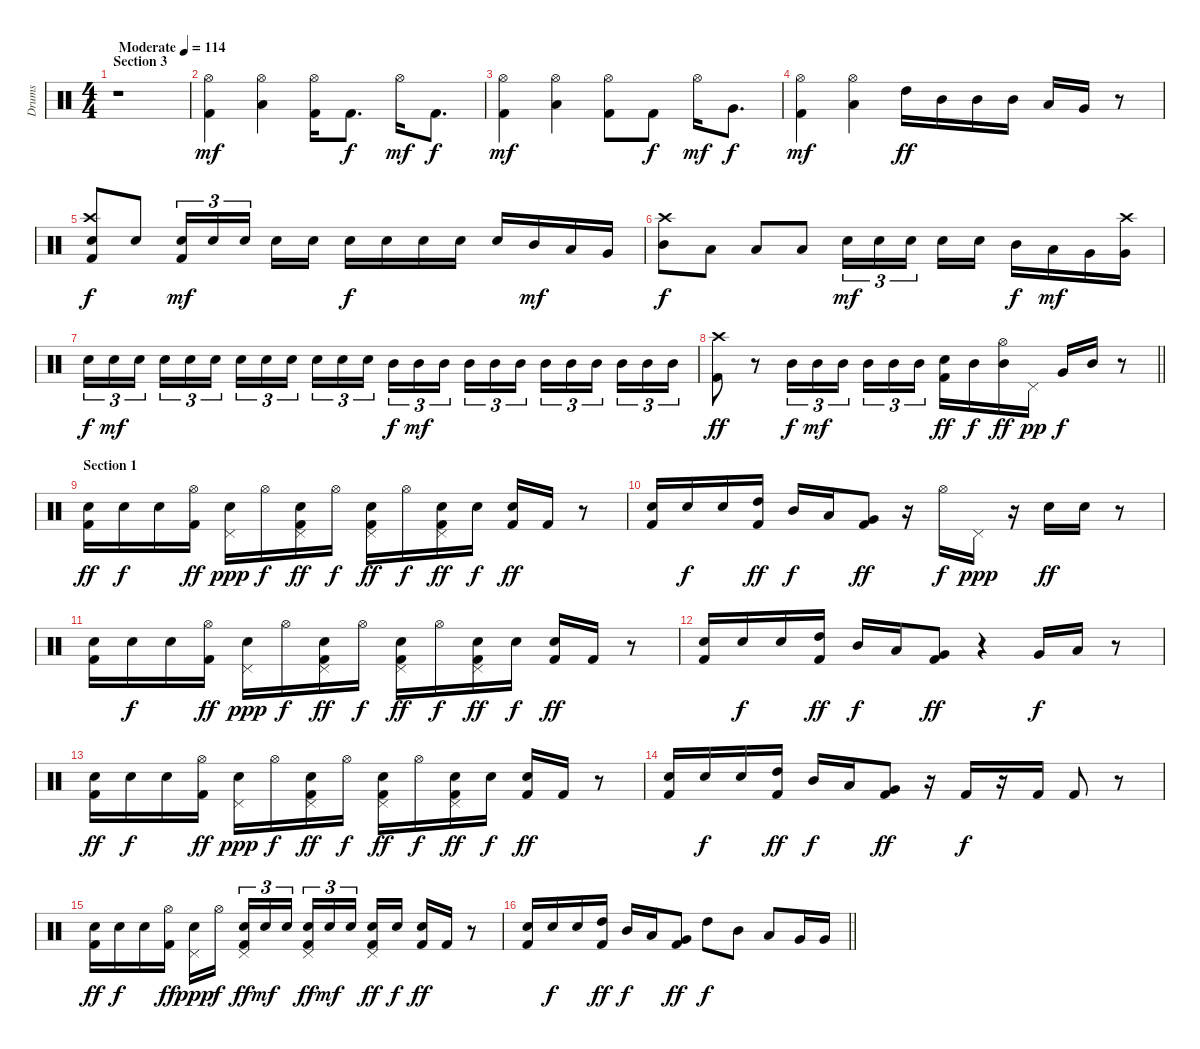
\track ("Drums" "Drums") {instrument percussion}
\staff {score}
\articulation defaults
\ts (4 4)
\section ("" "Section 3")
\tempo (114 "Moderate")
\clef neutral
\ks c
r.1{dy mf volume 1} |
("Hi-Hat (open)" "Kick (hit) 2").4{volume 10} ("Hi-Hat (open)" "Low Tom (hit)").4 ("Hi-Hat (open)" "Kick (hit) 2").16 "Kick (hit) 2".8{d dy f} "Hi-Hat (open)".16{dy mf} "Kick (hit) 2".8{d dy f} |
("Hi-Hat (open)" "Kick (hit) 2").4{dy mf} ("Hi-Hat (open)" "Low Tom (hit)").4 ("Hi-Hat (open)" "Kick (hit) 2").8 "Kick (hit) 2".8{dy f} "Hi-Hat (open)".16{dy mf} "Very Low Tom (hit)".8{d dy f} |
("Hi-Hat (open)" "Kick (hit) 2").4{dy mf} ("Hi-Hat (open)" "Low Tom (hit)").4 "High Tom (hit)".16{dy ff} "Mid Tom (hit)".16 "Mid Tom (hit)".16 "Mid Tom (hit)".16 "Low Tom (hit)".16 "Very Low Tom (hit)".16 r.8 |
("Crash high (hit)" "Snare (hit) 2" "Kick (hit) 2").8{dy f} "Snare (hit) 2".8 ("Snare (hit) 2" "Kick (hit) 2").16{tu (3 2) dy mf} "Snare (hit) 2".16{tu (3 2)} "Snare (hit) 2".16{tu (3 2) beam splitsecondary} "Snare (hit) 2".16 "Snare (hit) 2".16 "Snare (hit) 2".16{dy f} "Snare (hit) 2".16 "Snare (hit) 2".16 "Snare (hit) 2".16 "Snare (hit) 2".16 "Mid Tom (hit)".16{dy mf} "Low Tom (hit)".16 "Very Low Tom (hit)".16 |
("Crash high (hit)" "Mid Tom (hit)").8{dy f} "Low Tom (hit)".8 "Low Tom (hit)".8 "Low Tom (hit)".8 "Snare (hit) 2".16{tu (3 2) dy mf} "Snare (hit) 2".16{tu (3 2)} "Snare (hit) 2".16{tu (3 2) beam splitsecondary} "Snare (hit) 2".16 "Snare (hit) 2".16 "Mid Tom (hit)".16{dy f} "Low Tom (hit)".16{dy mf} "Very Low Tom (hit)".16 ("Crash high (hit)" "Very Low Tom (hit)").16 |
"Snare (hit) 2".16{tu (3 2) dy f} "Snare (hit) 2".16{tu (3 2) dy mf} "Snare (hit) 2".16{tu (3 2) beam splitsecondary} "Snare (hit) 2".16{tu (3 2)} "Snare (hit) 2".16{tu (3 2)} "Snare (hit) 2".16{tu (3 2)} "Snare (hit) 2".16{tu (3 2)} "Snare (hit) 2".16{tu (3 2)} "Snare (hit) 2".16{tu (3 2) beam splitsecondary} "Snare (hit) 2".16{tu (3 2)} "Snare (hit) 2".16{tu (3 2)} "Snare (hit) 2".16{tu (3 2)} "Mid Tom (hit)".16{tu (3 2) dy f} "Mid Tom (hit)".16{tu (3 2) dy mf} "Mid Tom (hit)".16{tu (3 2) beam splitsecondary} "Mid Tom (hit)".16{tu (3 2)} "Mid Tom (hit)".16{tu (3 2)} "Mid Tom (hit)".16{tu (3 2)} "Mid Tom (hit)".16{tu (3 2)} "Mid Tom (hit)".16{tu (3 2)} "Mid Tom (hit)".16{tu (3 2) beam splitsecondary} "Mid Tom (hit)".16{tu (3 2)} "Mid Tom (hit)".16{tu (3 2)} "Mid Tom (hit)".16{tu (3 2)} |
\barLineRight lightlight
("Crash high (hit)" "Kick (hit) 2").8{dy ff} r.8 "Mid Tom (hit)".16{tu (3 2) dy f} "Mid Tom (hit)".16{tu (3 2) dy mf} "Mid Tom (hit)".16{tu (3 2) beam splitsecondary} "Mid Tom (hit)".16{tu (3 2)} "Mid Tom (hit)".16{tu (3 2)} "Mid Tom (hit)".16{tu (3 2)} ("Snare (hit) 2" "Kick (hit) 2").16{dy ff} "Mid Tom (hit)".16{dy f} ("Hi-Hat (open)" "Mid Tom (hit)").16{dy ff} "Pedal Hi-Hat (hit)".16{dy pp} "Very Low Tom (hit)".16{dy f} "Mid Tom (hit)".16 r.8 |
\section ("" "Section 1")
("Snare (hit) 2" "Kick (hit) 2").16{dy ff} "Electric Snare (hit)".16{dy f} "Electric Snare (hit)".16 ("Hi-Hat (open)" "Kick (hit) 2").16{dy ff} ("Pedal Hi-Hat (hit)" "Electric Snare (hit)").16{dy ppp} "Hi-Hat (open)".16{dy f} ("Pedal Hi-Hat (hit)" "Electric Snare (hit)" "Kick (hit) 2").16{dy ff} "Hi-Hat (open)".16{dy f} ("Pedal Hi-Hat (hit)" "Electric Snare (hit)" "Kick (hit) 2").16{dy ff} "Hi-Hat (open)".16{dy f} ("Pedal Hi-Hat (hit)" "Electric Snare (hit)" "Kick (hit) 2").16{dy ff} "Snare (hit) 2".16{dy f} ("Electric Snare (hit)" "Kick (hit) 2").16{dy ff} "Kick (hit) 2".16 r.8 |
("Snare (hit) 2" "Kick (hit) 2").16 "Electric Snare (hit)".16{dy f} "Electric Snare (hit)".16 ("High Tom (hit)" "Kick (hit) 2").16{dy ff} "Mid Tom (hit)".16{dy f} "Low Tom (hit)".16 ("Very Low Tom (hit)" "Kick (hit) 2").8{dy ff} r.16 "Hi-Hat (open)".16{dy f} "Pedal Hi-Hat (hit)".16{dy ppp} r.16 "Snare (hit) 2".16{dy ff} "Electric Snare (hit)".16 r.8 |
("Snare (hit) 2" "Kick (hit) 2").16 "Electric Snare (hit)".16{dy f} "Electric Snare (hit)".16 ("Hi-Hat (open)" "Kick (hit) 2").16{dy ff} ("Pedal Hi-Hat (hit)" "Electric Snare (hit)").16{dy ppp} "Hi-Hat (open)".16{dy f} ("Pedal Hi-Hat (hit)" "Electric Snare (hit)" "Kick (hit) 2").16{dy ff} "Hi-Hat (open)".16{dy f} ("Pedal Hi-Hat (hit)" "Electric Snare (hit)" "Kick (hit) 2").16{dy ff} "Hi-Hat (open)".16{dy f} ("Pedal Hi-Hat (hit)" "Electric Snare (hit)" "Kick (hit) 2").16{dy ff} "Snare (hit) 2".16{dy f} ("Electric Snare (hit)" "Kick (hit) 2").16{dy ff} "Kick (hit) 2".16 r.8 |
("Snare (hit) 2" "Kick (hit) 2").16 "Electric Snare (hit)".16{dy f} "Electric Snare (hit)".16 ("High Tom (hit)" "Kick (hit) 2").16{dy ff} "Mid Tom (hit)".16{dy f} "Low Tom (hit)".16 ("Very Low Tom (hit)" "Kick (hit) 2").8{dy ff} r.4 "Very Low Tom (hit)".16{dy f} "Low Floor Tom (hit)".16 r.8 |
("Snare (hit) 2" "Kick (hit) 2").16{dy ff} "Electric Snare (hit)".16{dy f} "Electric Snare (hit)".16 ("Hi-Hat (open)" "Kick (hit) 2").16{dy ff} ("Pedal Hi-Hat (hit)" "Electric Snare (hit)").16{dy ppp} "Hi-Hat (open)".16{dy f} ("Pedal Hi-Hat (hit)" "Electric Snare (hit)" "Kick (hit) 2").16{dy ff} "Hi-Hat (open)".16{dy f} ("Pedal Hi-Hat (hit)" "Electric Snare (hit)" "Kick (hit) 2").16{dy ff} "Hi-Hat (open)".16{dy f} ("Pedal Hi-Hat (hit)" "Electric Snare (hit)" "Kick (hit) 2").16{dy ff} "Snare (hit) 2".16{dy f} ("Electric Snare (hit)" "Kick (hit) 2").16{dy ff} "Kick (hit) 2".16 r.8 |
("Snare (hit) 2" "Kick (hit) 2").16 "Electric Snare (hit)".16{dy f} "Electric Snare (hit)".16 ("High Tom (hit)" "Kick (hit) 2").16{dy ff} "Mid Tom (hit)".16{dy f} "Low Tom (hit)".16 ("Very Low Tom (hit)" "Kick (hit) 2").8{dy ff} r.16 "Kick (hit) 2".16{dy f} r.16 "Kick (hit) 2".16 "Kick (hit) 2".8 r.8 |
("Snare (hit) 2" "Kick (hit) 2").16{dy ff} "Electric Snare (hit)".16{dy f} "Electric Snare (hit)".16 ("Hi-Hat (open)" "Kick (hit) 2").16{dy ff} ("Pedal Hi-Hat (hit)" "Electric Snare (hit)").16{dy ppp} "Hi-Hat (open)".16{dy f beam splitsecondary} ("Pedal Hi-Hat (hit)" "Electric Snare (hit)" "Kick (hit) 2").16{tu (3 2) dy ff} "Electric Snare (hit)".16{tu (3 2) dy mf} "Electric Snare (hit)".16{tu (3 2)} ("Pedal Hi-Hat (hit)" "Electric Snare (hit)" "Kick (hit) 2").16{tu (3 2) dy ff} "Electric Snare (hit)".16{tu (3 2) dy mf} "Electric Snare (hit)".16{tu (3 2) beam splitsecondary} ("Pedal Hi-Hat (hit)" "Electric Snare (hit)" "Kick (hit) 2").16{dy ff} "Snare (hit) 2".16{dy f} ("Electric Snare (hit)" "Kick (hit) 2").16{dy ff} "Kick (hit) 2".16 r.8 |
\barLineRight lightlight
("Snare (hit) 2" "Kick (hit) 2").16 "Electric Snare (hit)".16{dy f} "Electric Snare (hit)".16 ("High Tom (hit)" "Kick (hit) 2").16{dy ff} "Mid Tom (hit)".16{dy f} "Low Tom (hit)".16 ("Very Low Tom (hit)" "Kick (hit) 2").8{dy ff} "High Tom (hit)".8{dy f} "Mid Tom (hit)".8 "Low Tom (hit)".8 "Very Low Tom (hit)".16 "Very Low Tom (hit)".16
